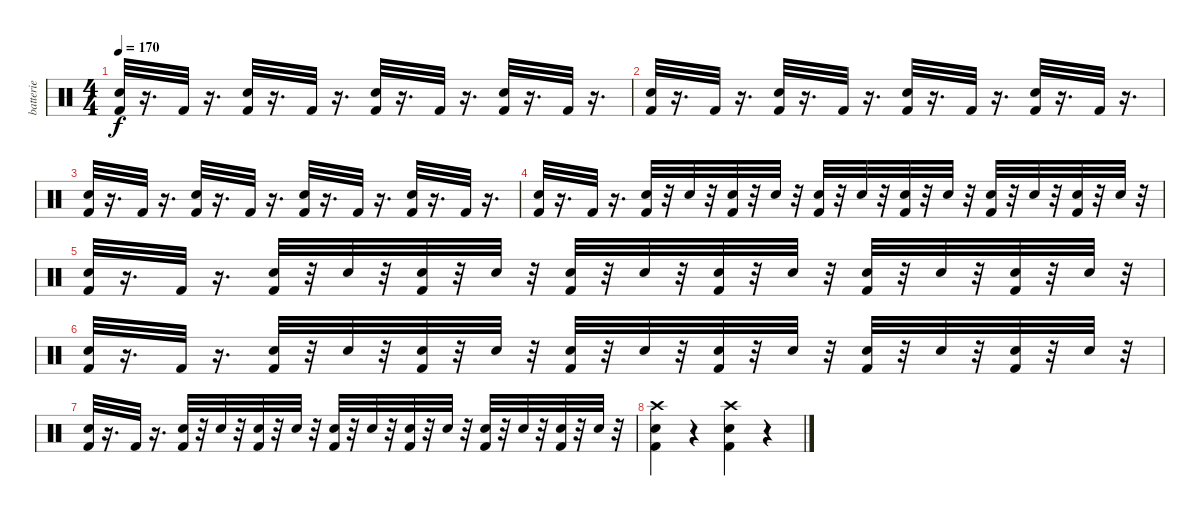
\track ("batterie" "batterie") {instrument percussion}
\staff {score}
\articulation defaults
\ts (4 4)
\tempo 170
\clef neutral
\ks c
("Kick (hit) 2" "Snare (hit) 2").32{dy f} r.16{d} "Kick (hit) 2".32 r.16{d} ("Kick (hit) 2" "Snare (hit) 2").32 r.16{d} "Kick (hit) 2".32 r.16{d} ("Kick (hit) 2" "Snare (hit) 2").32 r.16{d} "Kick (hit) 2".32 r.16{d} ("Kick (hit) 2" "Snare (hit) 2").32 r.16{d} "Kick (hit) 2".32 r.16{d} |
("Kick (hit) 2" "Snare (hit) 2").32 r.16{d} "Kick (hit) 2".32 r.16{d} ("Kick (hit) 2" "Snare (hit) 2").32 r.16{d} "Kick (hit) 2".32 r.16{d} ("Kick (hit) 2" "Snare (hit) 2").32 r.16{d} "Kick (hit) 2".32 r.16{d} ("Kick (hit) 2" "Snare (hit) 2").32 r.16{d} "Kick (hit) 2".32 r.16{d} |
("Kick (hit) 2" "Snare (hit) 2").32 r.16{d} "Kick (hit) 2".32 r.16{d} ("Kick (hit) 2" "Snare (hit) 2").32 r.16{d} "Kick (hit) 2".32 r.16{d} ("Kick (hit) 2" "Snare (hit) 2").32 r.16{d} "Kick (hit) 2".32 r.16{d} ("Kick (hit) 2" "Snare (hit) 2").32 r.16{d} "Kick (hit) 2".32 r.16{d} |
("Kick (hit) 2" "Snare (hit) 2").32 r.16{d} "Kick (hit) 2".32 r.16{d} ("Kick (hit) 2" "Snare (hit) 2").32 r.32 "Snare (hit) 2".32 r.32 ("Kick (hit) 2" "Snare (hit) 2").32 r.32 "Snare (hit) 2".32 r.32 ("Kick (hit) 2" "Snare (hit) 2").32 r.32 "Snare (hit) 2".32 r.32 ("Kick (hit) 2" "Snare (hit) 2").32 r.32 "Snare (hit) 2".32 r.32 ("Kick (hit) 2" "Snare (hit) 2").32 r.32 "Snare (hit) 2".32 r.32 ("Kick (hit) 2" "Snare (hit) 2").32 r.32 "Snare (hit) 2".32 r.32 |
("Kick (hit) 2" "Snare (hit) 2").32 r.16{d} "Kick (hit) 2".32 r.16{d} ("Kick (hit) 2" "Snare (hit) 2").32 r.32 "Snare (hit) 2".32 r.32 ("Kick (hit) 2" "Snare (hit) 2").32 r.32 "Snare (hit) 2".32 r.32 ("Kick (hit) 2" "Snare (hit) 2").32 r.32 "Snare (hit) 2".32 r.32 ("Kick (hit) 2" "Snare (hit) 2").32 r.32 "Snare (hit) 2".32 r.32 ("Kick (hit) 2" "Snare (hit) 2").32 r.32 "Snare (hit) 2".32 r.32 ("Kick (hit) 2" "Snare (hit) 2").32 r.32 "Snare (hit) 2".32 r.32 |
("Kick (hit) 2" "Snare (hit) 2").32 r.16{d} "Kick (hit) 2".32 r.16{d} ("Kick (hit) 2" "Snare (hit) 2").32 r.32 "Snare (hit) 2".32 r.32 ("Kick (hit) 2" "Snare (hit) 2").32 r.32 "Snare (hit) 2".32 r.32 ("Kick (hit) 2" "Snare (hit) 2").32 r.32 "Snare (hit) 2".32 r.32 ("Kick (hit) 2" "Snare (hit) 2").32 r.32 "Snare (hit) 2".32 r.32 ("Kick (hit) 2" "Snare (hit) 2").32 r.32 "Snare (hit) 2".32 r.32 ("Kick (hit) 2" "Snare (hit) 2").32 r.32 "Snare (hit) 2".32 r.32 |
("Kick (hit) 2" "Snare (hit) 2").32 r.16{d} "Kick (hit) 2".32 r.16{d} ("Kick (hit) 2" "Snare (hit) 2").32 r.32 "Snare (hit) 2".32 r.32 ("Kick (hit) 2" "Snare (hit) 2").32 r.32 "Snare (hit) 2".32 r.32 ("Kick (hit) 2" "Snare (hit) 2").32 r.32 "Snare (hit) 2".32 r.32 ("Kick (hit) 2" "Snare (hit) 2").32 r.32 "Snare (hit) 2".32 r.32 ("Kick (hit) 2" "Snare (hit) 2").32 r.32 "Snare (hit) 2".32 r.32 ("Kick (hit) 2" "Snare (hit) 2").32 r.32 "Snare (hit) 2".32 r.32 |
("Snare (hit) 2" "Crash high (hit)" "Kick (hit) 2").4 r.4 ("Snare (hit) 2" "Crash high (hit)" "Kick (hit) 2").4 r.4
